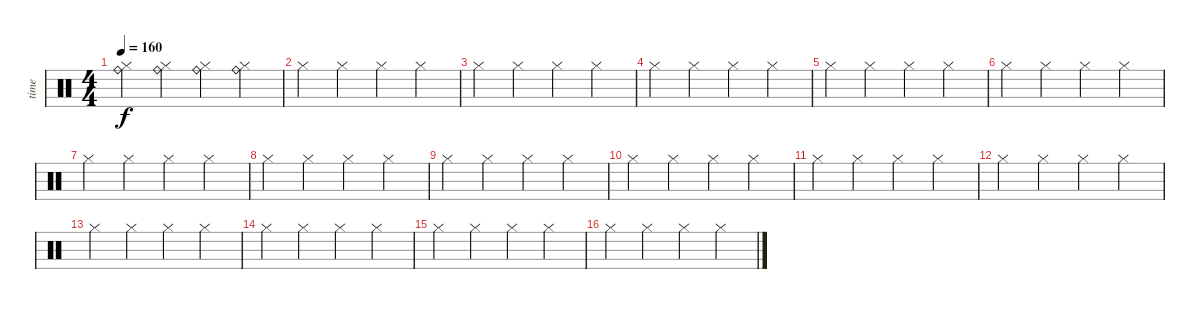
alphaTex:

\track ("time" "time") {instrument percussion}
\staff {score}
\articulation defaults
\ts (4 4)
\tempo 160
\clef neutral
\ks c
("Ride (bell)" "Hi-Hat (closed)").4{dy f} ("Ride (bell)" "Hi-Hat (closed)").4 ("Ride (bell)" "Hi-Hat (closed)").4 ("Ride (bell)" "Hi-Hat (closed)").4 |
"Hi-Hat (closed)".4 "Hi-Hat (closed)".4 "Hi-Hat (closed)".4 "Hi-Hat (closed)".4 |
"Hi-Hat (closed)".4 "Hi-Hat (closed)".4 "Hi-Hat (closed)".4 "Hi-Hat (closed)".4 |
"Hi-Hat (closed)".4 "Hi-Hat (closed)".4 "Hi-Hat (closed)".4 "Hi-Hat (closed)".4 |
"Hi-Hat (closed)".4 "Hi-Hat (closed)".4 "Hi-Hat (closed)".4 "Hi-Hat (closed)".4 |
"Hi-Hat (closed)".4 "Hi-Hat (closed)".4 "Hi-Hat (closed)".4 "Hi-Hat (closed)".4 |
"Hi-Hat (closed)".4 "Hi-Hat (closed)".4 "Hi-Hat (closed)".4 "Hi-Hat (closed)".4 |
"Hi-Hat (closed)".4 "Hi-Hat (closed)".4 "Hi-Hat (closed)".4 "Hi-Hat (closed)".4 |
"Hi-Hat (closed)".4 "Hi-Hat (closed)".4 "Hi-Hat (closed)".4 "Hi-Hat (closed)".4 |
"Hi-Hat (closed)".4 "Hi-Hat (closed)".4 "Hi-Hat (closed)".4 "Hi-Hat (closed)".4 |
"Hi-Hat (closed)".4 "Hi-Hat (closed)".4 "Hi-Hat (closed)".4 "Hi-Hat (closed)".4 |
"Hi-Hat (closed)".4 "Hi-Hat (closed)".4 "Hi-Hat (closed)".4 "Hi-Hat (closed)".4 |
"Hi-Hat (closed)".4 "Hi-Hat (closed)".4 "Hi-Hat (closed)".4 "Hi-Hat (closed)".4 |
"Hi-Hat (closed)".4 "Hi-Hat (closed)".4 "Hi-Hat (closed)".4 "Hi-Hat (closed)".4 |
"Hi-Hat (closed)".4 "Hi-Hat (closed)".4 "Hi-Hat (closed)".4 "Hi-Hat (closed)".4 |
"Hi-Hat (closed)".4 "Hi-Hat (closed)".4 "Hi-Hat (closed)".4 "Hi-Hat (closed)".4
